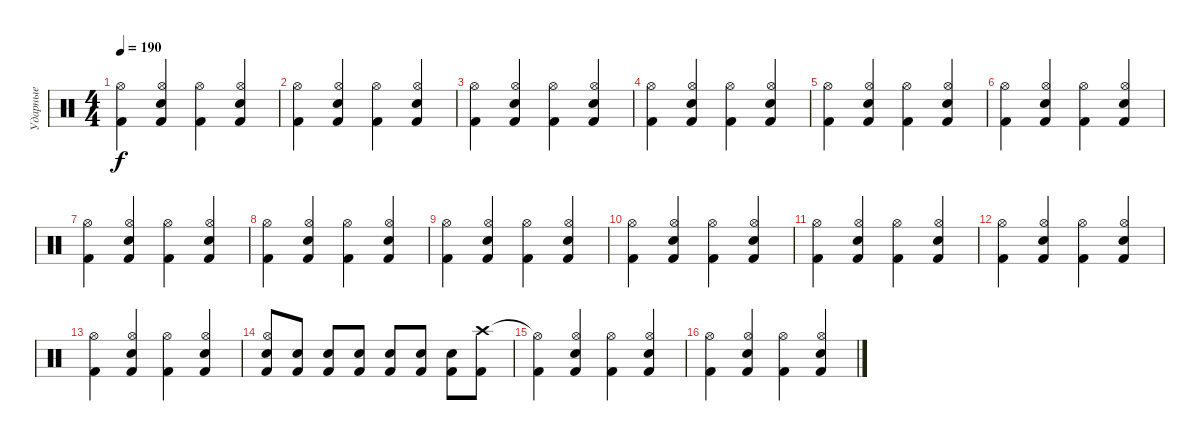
\track ("Ударные" "Ударные") {instrument percussion}
\staff
\articulation defaults
\ts (4 4)
\tempo 190
\clef neutral
\ks c
("Kick (hit) 2" "Hi-Hat (open)").4{dy f} ("Kick (hit) 2" "Snare (hit) 2" "Hi-Hat (open)").4 ("Kick (hit) 2" "Hi-Hat (open)").4 ("Kick (hit) 2" "Snare (hit) 2" "Hi-Hat (open)").4 |
("Kick (hit) 2" "Hi-Hat (open)").4 ("Kick (hit) 2" "Snare (hit) 2" "Hi-Hat (open)").4 ("Kick (hit) 2" "Hi-Hat (open)").4 ("Kick (hit) 2" "Snare (hit) 2" "Hi-Hat (open)").4 |
("Kick (hit) 2" "Hi-Hat (open)").4 ("Kick (hit) 2" "Snare (hit) 2" "Hi-Hat (open)").4 ("Kick (hit) 2" "Hi-Hat (open)").4 ("Kick (hit) 2" "Snare (hit) 2" "Hi-Hat (open)").4 |
("Kick (hit) 2" "Hi-Hat (open)").4 ("Kick (hit) 2" "Snare (hit) 2" "Hi-Hat (open)").4 ("Kick (hit) 2" "Hi-Hat (open)").4 ("Kick (hit) 2" "Snare (hit) 2" "Hi-Hat (open)").4 |
("Kick (hit) 2" "Hi-Hat (open)").4 ("Kick (hit) 2" "Snare (hit) 2" "Hi-Hat (open)").4 ("Kick (hit) 2" "Hi-Hat (open)").4 ("Kick (hit) 2" "Snare (hit) 2" "Hi-Hat (open)").4 |
("Kick (hit) 2" "Hi-Hat (open)").4 ("Kick (hit) 2" "Snare (hit) 2" "Hi-Hat (open)").4 ("Kick (hit) 2" "Hi-Hat (open)").4 ("Kick (hit) 2" "Snare (hit) 2" "Hi-Hat (open)").4 |
("Kick (hit) 2" "Hi-Hat (open)").4 ("Kick (hit) 2" "Snare (hit) 2" "Hi-Hat (open)").4 ("Kick (hit) 2" "Hi-Hat (open)").4 ("Kick (hit) 2" "Snare (hit) 2" "Hi-Hat (open)").4 |
("Kick (hit) 2" "Hi-Hat (open)").4 ("Kick (hit) 2" "Snare (hit) 2" "Hi-Hat (open)").4 ("Kick (hit) 2" "Hi-Hat (open)").4 ("Kick (hit) 2" "Snare (hit) 2" "Hi-Hat (open)").4 |
("Kick (hit) 2" "Hi-Hat (open)").4 ("Kick (hit) 2" "Snare (hit) 2" "Hi-Hat (open)").4 ("Kick (hit) 2" "Hi-Hat (open)").4 ("Kick (hit) 2" "Snare (hit) 2" "Hi-Hat (open)").4 |
("Kick (hit) 2" "Hi-Hat (open)").4 ("Kick (hit) 2" "Snare (hit) 2" "Hi-Hat (open)").4 ("Kick (hit) 2" "Hi-Hat (open)").4 ("Kick (hit) 2" "Snare (hit) 2" "Hi-Hat (open)").4 |
("Kick (hit) 2" "Hi-Hat (open)").4 ("Kick (hit) 2" "Snare (hit) 2" "Hi-Hat (open)").4 ("Kick (hit) 2" "Hi-Hat (open)").4 ("Kick (hit) 2" "Snare (hit) 2" "Hi-Hat (open)").4 |
("Kick (hit) 2" "Hi-Hat (open)").4 ("Kick (hit) 2" "Snare (hit) 2" "Hi-Hat (open)").4 ("Kick (hit) 2" "Hi-Hat (open)").4 ("Kick (hit) 2" "Snare (hit) 2" "Hi-Hat (open)").4 |
("Kick (hit) 2" "Hi-Hat (open)").4 ("Kick (hit) 2" "Snare (hit) 2" "Hi-Hat (open)").4 ("Kick (hit) 2" "Hi-Hat (open)").4 ("Kick (hit) 2" "Snare (hit) 2" "Hi-Hat (open)").4 |
("Kick (hit) 2" "Snare (hit) 2" "Hi-Hat (open)").8 ("Kick (hit) 2" "Snare (hit) 2").8 ("Kick (hit) 2" "Snare (hit) 2").8 ("Kick (hit) 2" "Snare (hit) 2").8 ("Kick (hit) 2" "Snare (hit) 2").8 ("Kick (hit) 2" "Snare (hit) 2").8 ("Kick (hit) 2" "Snare (hit) 2").8 ("Kick (hit) 2" "Crash high (hit)").8 |
("Kick (hit) 2" "Hi-Hat (open)"{t}).4 ("Kick (hit) 2" "Snare (hit) 2" "Hi-Hat (open)").4 ("Kick (hit) 2" "Hi-Hat (open)").4 ("Kick (hit) 2" "Snare (hit) 2" "Hi-Hat (open)").4 |
("Kick (hit) 2" "Hi-Hat (open)").4 ("Kick (hit) 2" "Snare (hit) 2" "Hi-Hat (open)").4 ("Kick (hit) 2" "Hi-Hat (open)").4 ("Kick (hit) 2" "Snare (hit) 2" "Hi-Hat (open)").4
